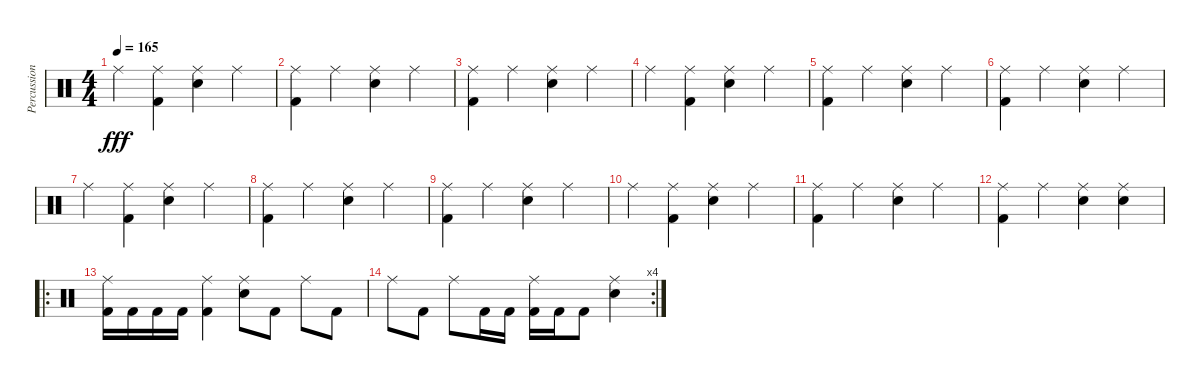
\track ("Percussion" "Percussion") {instrument percussion}
\staff {score}
\articulation defaults
\ts (4 4)
\tempo 165
\clef neutral
\ks c "Ride (middle)".4{dy fff}
("Kick (hit) 2" "Ride (middle)").4 ("Snare (hit) 2" "Ride (middle)").4 "Ride (middle)".4 |
("Kick (hit) 2" "Ride (middle)").4 "Ride (middle)".4 ("Snare (hit) 2" "Ride (middle)").4 "Ride (middle)".4 |
("Kick (hit) 2" "Ride (middle)").4 "Ride (middle)".4 ("Snare (hit) 2" "Ride (middle)").4 "Ride (middle)".4 |
"Ride (middle)".4 ("Kick (hit) 2" "Ride (middle)").4 ("Snare (hit) 2" "Ride (middle)").4 "Ride (middle)".4 |
("Kick (hit) 2" "Ride (middle)").4 "Ride (middle)".4 ("Snare (hit) 2" "Ride (middle)").4 "Ride (middle)".4 |
("Kick (hit) 2" "Ride (middle)").4 "Ride (middle)".4 ("Snare (hit) 2" "Ride (middle)").4 "Ride (middle)".4 |
"Ride (middle)".4 ("Kick (hit) 2" "Ride (middle)").4 ("Snare (hit) 2" "Ride (middle)").4 "Ride (middle)".4 |
("Kick (hit) 2" "Ride (middle)").4 "Ride (middle)".4 ("Snare (hit) 2" "Ride (middle)").4 "Ride (middle)".4 |
("Kick (hit) 2" "Ride (middle)").4 "Ride (middle)".4 ("Snare (hit) 2" "Ride (middle)").4 "Ride (middle)".4 |
"Ride (middle)".4 ("Kick (hit) 2" "Ride (middle)").4 ("Snare (hit) 2" "Ride (middle)").4 "Ride (middle)".4 |
("Kick (hit) 2" "Ride (middle)").4 "Ride (middle)".4 ("Snare (hit) 2" "Ride (middle)").4 "Ride (middle)".4 |
("Kick (hit) 2" "Ride (middle)").4 "Ride (middle)".4 ("Snare (hit) 2" "Ride (middle)").4 ("Snare (hit) 2" "Ride (middle)").4 |
\ro
("Ride (middle)" "Kick (hit) 2").16 "Kick (hit) 2".16 "Kick (hit) 2".16 "Kick (hit) 2".16 ("Ride (middle)" "Kick (hit) 2").4 ("Ride (middle)" "Snare (hit) 2").8 "Kick (hit) 2".8 "Ride (middle)".8 "Kick (hit) 2".8 |
\rc 4 "Ride (middle)".8 "Kick (hit) 2".8 "Ride (middle)".8 "Kick (hit) 2".16 "Kick (hit) 2".16
("Ride (middle)" "Kick (hit) 2").16 "Kick (hit) 2".16 "Kick (hit) 2".8 ("Ride (middle)" "Snare (hit) 2").4
